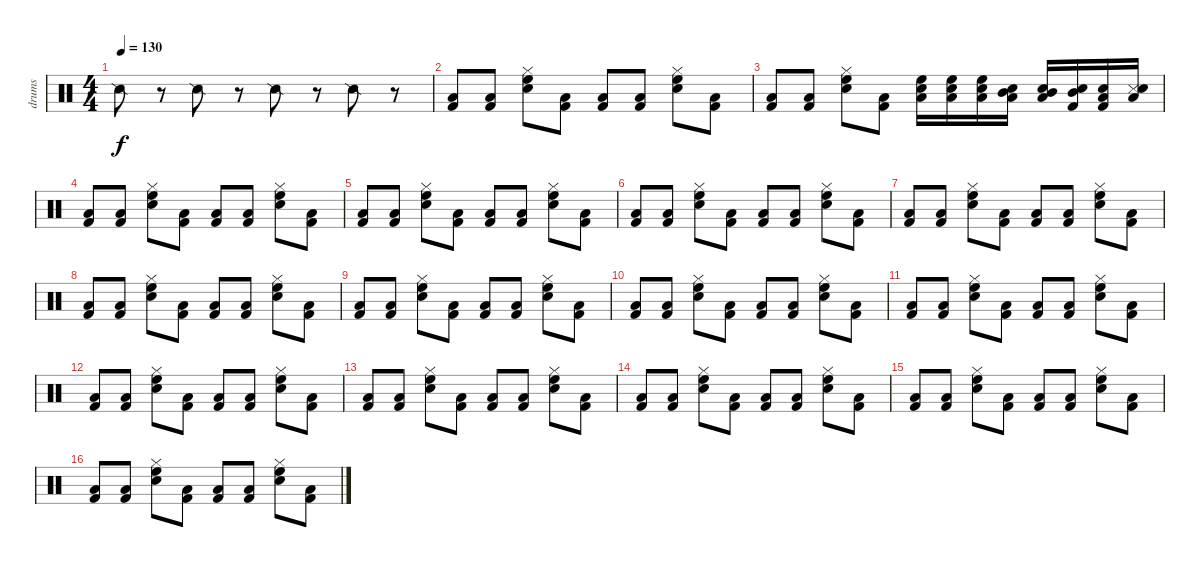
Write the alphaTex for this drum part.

\track ("drums" "drums") {instrument percussion}
\staff {score}
\articulation defaults
\ts (4 4)
\tempo 130
\clef neutral
\ks c "Snare (side stick) 2".8{dy f}
r.8 "Snare (side stick) 2".8 r.8 "Snare (side stick) 2".8 r.8 "Snare (side stick) 2".8 r.8 |
("Kick (hit) 2" "Low Tom (hit)").8 ("Kick (hit) 2" "Low Tom (hit)").8 ("Hi-Hat (closed)" "High Floor Tom (hit)" "Snare (hit) 2").8 ("Kick (hit) 2" "Low Tom (hit)").8 ("Kick (hit) 2" "Low Tom (hit)").8 ("Kick (hit) 2" "Low Tom (hit)").8 ("Hi-Hat (closed)" "High Floor Tom (hit)" "Snare (hit) 2").8 ("Kick (hit) 2" "Low Tom (hit)").8 |
("Kick (hit) 2" "Low Tom (hit)").8 ("Kick (hit) 2" "Low Tom (hit)").8 ("Hi-Hat (closed)" "High Floor Tom (hit)" "Snare (hit) 2").8 ("Kick (hit) 2" "Low Tom (hit)").8 ("High Floor Tom (hit)" "Low Tom (hit)" "Snare (hit) 2").16 ("High Floor Tom (hit)" "Low Tom (hit)" "Snare (hit) 2").16 ("High Floor Tom (hit)" "Low Tom (hit)" "Snare (hit) 2").16 ("Mid Tom (hit)" "Low Tom (hit)" "Snare (hit) 2").16 ("Mid Tom (hit)" "Low Tom (hit)" "Snare (hit) 2").16 ("Mid Tom (hit)" "Kick (hit) 2" "Snare (hit) 2").16 ("Low Tom (hit)" "Kick (hit) 2" "Snare (hit) 2").16 ("Low Floor Tom (hit)" "Snare (side stick) 3" "Snare (hit) 2").16 |
("Kick (hit) 2" "Low Tom (hit)").8 ("Kick (hit) 2" "Low Tom (hit)").8 ("Hi-Hat (closed)" "High Floor Tom (hit)" "Snare (hit) 2").8 ("Kick (hit) 2" "Low Tom (hit)").8 ("Kick (hit) 2" "Low Tom (hit)").8 ("Kick (hit) 2" "Low Tom (hit)").8 ("Hi-Hat (closed)" "High Floor Tom (hit)" "Snare (hit) 2").8 ("Kick (hit) 2" "Low Tom (hit)").8 |
("Kick (hit) 2" "Low Tom (hit)").8 ("Kick (hit) 2" "Low Tom (hit)").8 ("Hi-Hat (closed)" "High Floor Tom (hit)" "Snare (hit) 2").8 ("Kick (hit) 2" "Low Tom (hit)").8 ("Kick (hit) 2" "Low Tom (hit)").8 ("Kick (hit) 2" "Low Tom (hit)").8 ("Hi-Hat (closed)" "High Floor Tom (hit)" "Snare (hit) 2").8 ("Kick (hit) 2" "Low Tom (hit)").8 |
("Kick (hit) 2" "Low Tom (hit)").8 ("Kick (hit) 2" "Low Tom (hit)").8 ("Hi-Hat (closed)" "High Floor Tom (hit)" "Snare (hit) 2").8 ("Kick (hit) 2" "Low Tom (hit)").8 ("Kick (hit) 2" "Low Tom (hit)").8 ("Kick (hit) 2" "Low Tom (hit)").8 ("Hi-Hat (closed)" "High Floor Tom (hit)" "Snare (hit) 2").8 ("Kick (hit) 2" "Low Tom (hit)").8 |
("Kick (hit) 2" "Low Tom (hit)").8 ("Kick (hit) 2" "Low Tom (hit)").8 ("Hi-Hat (closed)" "High Floor Tom (hit)" "Snare (hit) 2").8 ("Kick (hit) 2" "Low Tom (hit)").8 ("Kick (hit) 2" "Low Tom (hit)").8 ("Kick (hit) 2" "Low Tom (hit)").8 ("Hi-Hat (closed)" "High Floor Tom (hit)" "Snare (hit) 2").8 ("Kick (hit) 2" "Low Tom (hit)").8 |
("Kick (hit) 2" "Low Tom (hit)").8 ("Kick (hit) 2" "Low Tom (hit)").8 ("Hi-Hat (closed)" "High Floor Tom (hit)" "Snare (hit) 2").8 ("Kick (hit) 2" "Low Tom (hit)").8 ("Kick (hit) 2" "Low Tom (hit)").8 ("Kick (hit) 2" "Low Tom (hit)").8 ("Hi-Hat (closed)" "High Floor Tom (hit)" "Snare (hit) 2").8 ("Kick (hit) 2" "Low Tom (hit)").8 |
("Kick (hit) 2" "Low Tom (hit)").8 ("Kick (hit) 2" "Low Tom (hit)").8 ("Hi-Hat (closed)" "High Floor Tom (hit)" "Snare (hit) 2").8 ("Kick (hit) 2" "Low Tom (hit)").8 ("Kick (hit) 2" "Low Tom (hit)").8 ("Kick (hit) 2" "Low Tom (hit)").8 ("Hi-Hat (closed)" "High Floor Tom (hit)" "Snare (hit) 2").8 ("Kick (hit) 2" "Low Tom (hit)").8 |
("Kick (hit) 2" "Low Tom (hit)").8 ("Kick (hit) 2" "Low Tom (hit)").8 ("Hi-Hat (closed)" "High Floor Tom (hit)" "Snare (hit) 2").8 ("Kick (hit) 2" "Low Tom (hit)").8 ("Kick (hit) 2" "Low Tom (hit)").8 ("Kick (hit) 2" "Low Tom (hit)").8 ("Hi-Hat (closed)" "High Floor Tom (hit)" "Snare (hit) 2").8 ("Kick (hit) 2" "Low Tom (hit)").8 |
("Kick (hit) 2" "Low Tom (hit)").8 ("Kick (hit) 2" "Low Tom (hit)").8 ("Hi-Hat (closed)" "High Floor Tom (hit)" "Snare (hit) 2").8 ("Kick (hit) 2" "Low Tom (hit)").8 ("Kick (hit) 2" "Low Tom (hit)").8 ("Kick (hit) 2" "Low Tom (hit)").8 ("Hi-Hat (closed)" "High Floor Tom (hit)" "Snare (hit) 2").8 ("Kick (hit) 2" "Low Tom (hit)").8 |
("Kick (hit) 2" "Low Tom (hit)").8 ("Kick (hit) 2" "Low Tom (hit)").8 ("Hi-Hat (closed)" "High Floor Tom (hit)" "Snare (hit) 2").8 ("Kick (hit) 2" "Low Tom (hit)").8 ("Kick (hit) 2" "Low Tom (hit)").8 ("Kick (hit) 2" "Low Tom (hit)").8 ("Hi-Hat (closed)" "High Floor Tom (hit)" "Snare (hit) 2").8 ("Kick (hit) 2" "Low Tom (hit)").8 |
("Kick (hit) 2" "Low Tom (hit)").8 ("Kick (hit) 2" "Low Tom (hit)").8 ("Hi-Hat (closed)" "High Floor Tom (hit)" "Snare (hit) 2").8 ("Kick (hit) 2" "Low Tom (hit)").8 ("Kick (hit) 2" "Low Tom (hit)").8 ("Kick (hit) 2" "Low Tom (hit)").8 ("Hi-Hat (closed)" "High Floor Tom (hit)" "Snare (hit) 2").8 ("Kick (hit) 2" "Low Tom (hit)").8 |
("Kick (hit) 2" "Low Tom (hit)").8 ("Kick (hit) 2" "Low Tom (hit)").8 ("Hi-Hat (closed)" "High Floor Tom (hit)" "Snare (hit) 2").8 ("Kick (hit) 2" "Low Tom (hit)").8 ("Kick (hit) 2" "Low Tom (hit)").8 ("Kick (hit) 2" "Low Tom (hit)").8 ("Hi-Hat (closed)" "High Floor Tom (hit)" "Snare (hit) 2").8 ("Kick (hit) 2" "Low Tom (hit)").8 |
("Kick (hit) 2" "Low Tom (hit)").8 ("Kick (hit) 2" "Low Tom (hit)").8 ("Hi-Hat (closed)" "High Floor Tom (hit)" "Snare (hit) 2").8 ("Kick (hit) 2" "Low Tom (hit)").8 ("Kick (hit) 2" "Low Tom (hit)").8 ("Kick (hit) 2" "Low Tom (hit)").8 ("Hi-Hat (closed)" "High Floor Tom (hit)" "Snare (hit) 2").8 ("Kick (hit) 2" "Low Tom (hit)").8 |
("Kick (hit) 2" "Low Tom (hit)").8 ("Kick (hit) 2" "Low Tom (hit)").8 ("Hi-Hat (closed)" "High Floor Tom (hit)" "Snare (hit) 2").8 ("Kick (hit) 2" "Low Tom (hit)").8 ("Kick (hit) 2" "Low Tom (hit)").8 ("Kick (hit) 2" "Low Tom (hit)").8 ("Hi-Hat (closed)" "High Floor Tom (hit)" "Snare (hit) 2").8 ("Kick (hit) 2" "Low Tom (hit)").8
